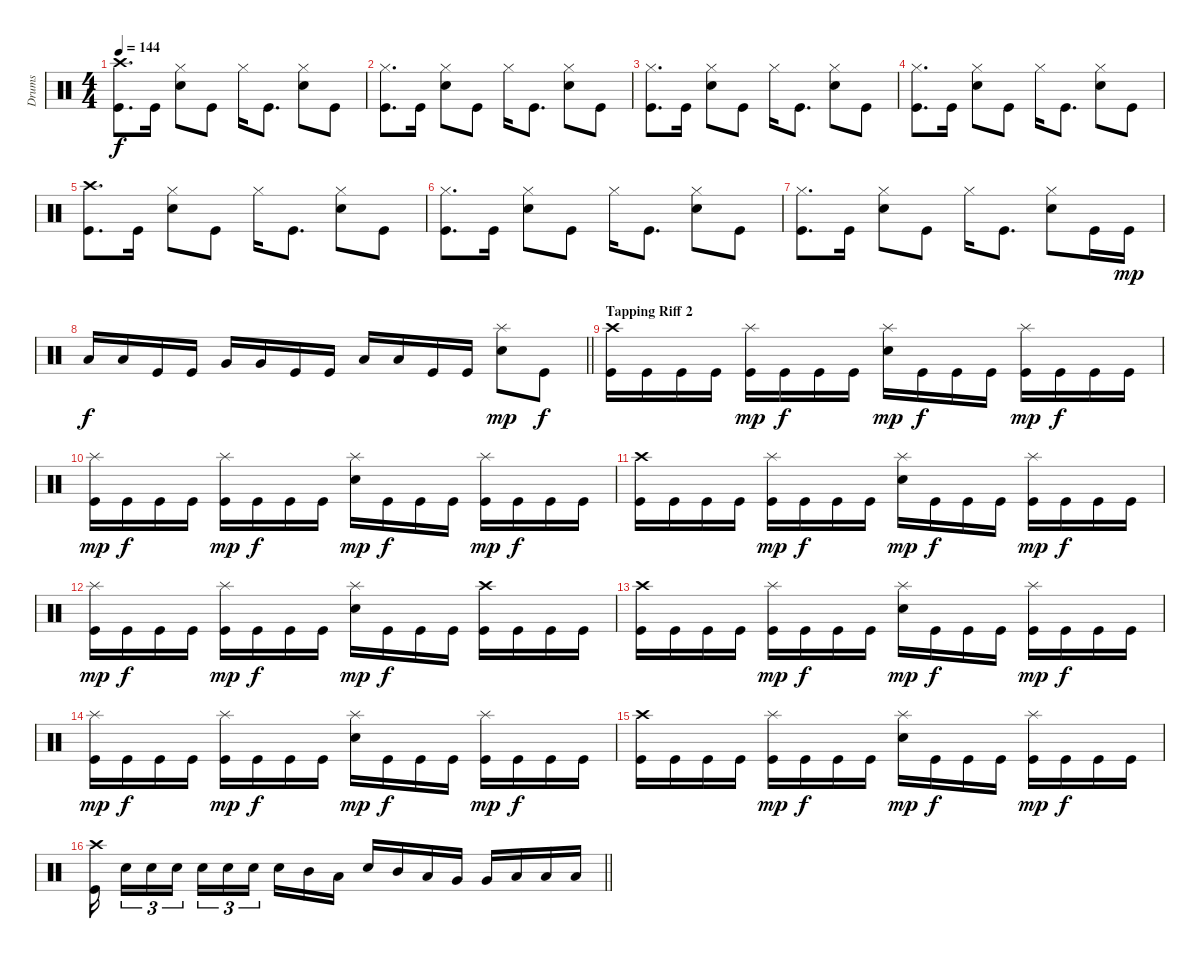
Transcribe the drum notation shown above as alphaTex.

\track ("Drums" "Drums") {instrument percussion}
\staff {score}
\articulation defaults
\ts (4 4)
\tempo 144
\clef neutral
\ks c
("Crash high (hit)" "Kick (hit)").8{d dy f} "Kick (hit)".16 ("Hi-Hat (closed)" "Electric Snare (hit)").8 "Kick (hit)".8 "Hi-Hat (closed)".16 "Kick (hit)".8{d} ("Hi-Hat (closed)" "Electric Snare (hit)").8 "Kick (hit)".8 |
("Hi-Hat (closed)" "Kick (hit)").8{d} "Kick (hit)".16 ("Hi-Hat (closed)" "Electric Snare (hit)").8 "Kick (hit)".8 "Hi-Hat (closed)".16 "Kick (hit)".8{d} ("Hi-Hat (closed)" "Electric Snare (hit)").8 "Kick (hit)".8 |
("Hi-Hat (closed)" "Kick (hit)").8{d} "Kick (hit)".16 ("Hi-Hat (closed)" "Electric Snare (hit)").8 "Kick (hit)".8 "Hi-Hat (closed)".16 "Kick (hit)".8{d} ("Hi-Hat (closed)" "Electric Snare (hit)").8 "Kick (hit)".8 |
("Hi-Hat (closed)" "Kick (hit)").8{d} "Kick (hit)".16 ("Hi-Hat (closed)" "Electric Snare (hit)").8 "Kick (hit)".8 "Hi-Hat (closed)".16 "Kick (hit)".8{d} ("Hi-Hat (closed)" "Electric Snare (hit)").8 "Kick (hit)".8 |
("Crash high (hit)" "Kick (hit)").8{d} "Kick (hit)".16 ("Hi-Hat (closed)" "Electric Snare (hit)").8 "Kick (hit)".8 "Hi-Hat (closed)".16 "Kick (hit)".8{d} ("Hi-Hat (closed)" "Electric Snare (hit)").8 "Kick (hit)".8 |
("Hi-Hat (closed)" "Kick (hit)").8{d} "Kick (hit)".16 ("Hi-Hat (closed)" "Electric Snare (hit)").8 "Kick (hit)".8 "Hi-Hat (closed)".16 "Kick (hit)".8{d} ("Hi-Hat (closed)" "Electric Snare (hit)").8 "Kick (hit)".8 |
("Hi-Hat (closed)" "Kick (hit)").8{d} "Kick (hit)".16 ("Hi-Hat (closed)" "Electric Snare (hit)").8 "Kick (hit)".8 "Hi-Hat (closed)".16 "Kick (hit)".8{d} ("Hi-Hat (closed)" "Electric Snare (hit)").8 "Kick (hit)".16 "Kick (hit)".16{dy mp} |
\barLineRight lightlight "Low Tom (hit)".16{dy f} "Low Tom (hit)".16 "Kick (hit)".16 "Kick (hit)".16 "Very Low Tom (hit)".16 "Very Low Tom (hit)".16 "Kick (hit)".16 "Kick (hit)".16 "Low Floor Tom (hit)".16 "Low Floor Tom (hit)".16 "Kick (hit)".16 "Kick (hit)".16
("Splash (hit)" "Electric Snare (hit)").8{dy mp} "Kick (hit)".8{dy f} |
\section ("" "Tapping Riff 2")
("Crash high (hit)" "Kick (hit)").16 "Kick (hit)".16 "Kick (hit)".16 "Kick (hit)".16 ("Splash (hit)" "Kick (hit)").16{dy mp} "Kick (hit)".16{dy f} "Kick (hit)".16 "Kick (hit)".16 ("Splash (hit)" "Electric Snare (hit)").16{dy mp} "Kick (hit)".16{dy f} "Kick (hit)".16 "Kick (hit)".16 ("Splash (hit)" "Kick (hit)").16{dy mp} "Kick (hit)".16{dy f} "Kick (hit)".16 "Kick (hit)".16 |
("Splash (hit)" "Kick (hit)").16{dy mp} "Kick (hit)".16{dy f} "Kick (hit)".16 "Kick (hit)".16 ("Splash (hit)" "Kick (hit)").16{dy mp} "Kick (hit)".16{dy f} "Kick (hit)".16 "Kick (hit)".16 ("Splash (hit)" "Electric Snare (hit)").16{dy mp} "Kick (hit)".16{dy f} "Kick (hit)".16 "Kick (hit)".16 ("Splash (hit)" "Kick (hit)").16{dy mp} "Kick (hit)".16{dy f} "Kick (hit)".16 "Kick (hit)".16 |
("Crash high (hit)" "Kick (hit)").16 "Kick (hit)".16 "Kick (hit)".16 "Kick (hit)".16 ("Splash (hit)" "Kick (hit)").16{dy mp} "Kick (hit)".16{dy f} "Kick (hit)".16 "Kick (hit)".16 ("Splash (hit)" "Electric Snare (hit)").16{dy mp} "Kick (hit)".16{dy f} "Kick (hit)".16 "Kick (hit)".16 ("Splash (hit)" "Kick (hit)").16{dy mp} "Kick (hit)".16{dy f} "Kick (hit)".16 "Kick (hit)".16 |
("Splash (hit)" "Kick (hit)").16{dy mp} "Kick (hit)".16{dy f} "Kick (hit)".16 "Kick (hit)".16 ("Splash (hit)" "Kick (hit)").16{dy mp} "Kick (hit)".16{dy f} "Kick (hit)".16 "Kick (hit)".16 ("Splash (hit)" "Electric Snare (hit)").16{dy mp} "Kick (hit)".16{dy f} "Kick (hit)".16 "Kick (hit)".16 ("Crash high (hit)" "Kick (hit)").16 "Kick (hit)".16 "Kick (hit)".16 "Kick (hit)".16 |
("Crash high (hit)" "Kick (hit)").16 "Kick (hit)".16 "Kick (hit)".16 "Kick (hit)".16 ("Splash (hit)" "Kick (hit)").16{dy mp} "Kick (hit)".16{dy f} "Kick (hit)".16 "Kick (hit)".16 ("Splash (hit)" "Electric Snare (hit)").16{dy mp} "Kick (hit)".16{dy f} "Kick (hit)".16 "Kick (hit)".16 ("Splash (hit)" "Kick (hit)").16{dy mp} "Kick (hit)".16{dy f} "Kick (hit)".16 "Kick (hit)".16 |
("Splash (hit)" "Kick (hit)").16{dy mp} "Kick (hit)".16{dy f} "Kick (hit)".16 "Kick (hit)".16 ("Splash (hit)" "Kick (hit)").16{dy mp} "Kick (hit)".16{dy f} "Kick (hit)".16 "Kick (hit)".16 ("Splash (hit)" "Electric Snare (hit)").16{dy mp} "Kick (hit)".16{dy f} "Kick (hit)".16 "Kick (hit)".16 ("Splash (hit)" "Kick (hit)").16{dy mp} "Kick (hit)".16{dy f} "Kick (hit)".16 "Kick (hit)".16 |
("Crash high (hit)" "Kick (hit)").16 "Kick (hit)".16 "Kick (hit)".16 "Kick (hit)".16 ("Splash (hit)" "Kick (hit)").16{dy mp} "Kick (hit)".16{dy f} "Kick (hit)".16 "Kick (hit)".16 ("Splash (hit)" "Electric Snare (hit)").16{dy mp} "Kick (hit)".16{dy f} "Kick (hit)".16 "Kick (hit)".16 ("Splash (hit)" "Kick (hit)").16{dy mp} "Kick (hit)".16{dy f} "Kick (hit)".16 "Kick (hit)".16 |
\barLineRight lightlight
("Crash high (hit)" "Kick (hit)").16{beam splitsecondary} "Electric Snare (hit)".16{tu (3 2)} "Electric Snare (hit)".16{tu (3 2)} "Electric Snare (hit)".16{tu (3 2) beam splitsecondary} "Electric Snare (hit)".16{tu (3 2)} "Electric Snare (hit)".16{tu (3 2)} "Electric Snare (hit)".16{tu (3 2) beam splitsecondary} "Electric Snare (hit)".16 "Mid Tom (hit)".16 "Low Tom (hit)".16 "Electric Snare (hit)".16 "Mid Tom (hit)".16 "Low Tom (hit)".16 "Very Low Tom (hit)".16 "Very Low Tom (hit)".16 "Low Floor Tom (hit)".16 "Low Floor Tom (hit)".16 "Low Floor Tom (hit)".16
